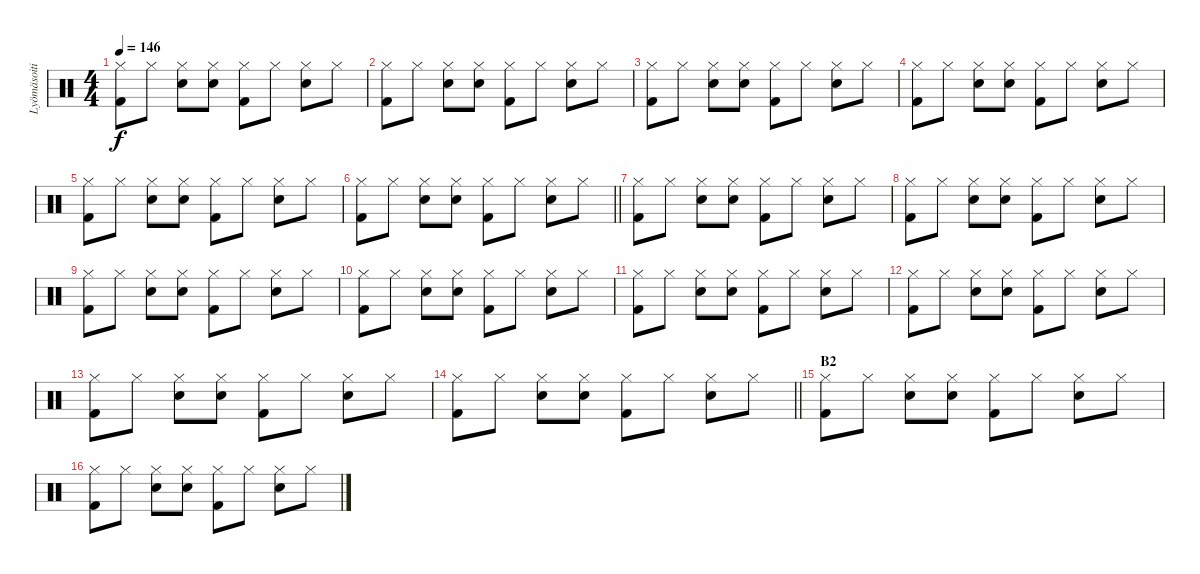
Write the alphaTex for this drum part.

\track ("Lyömäsoitin" "Lyömäsoiti") {instrument percussion}
\staff {score}
\articulation defaults
\ts (4 4)
\tempo 146
\clef neutral
\ks c
("Hi-Hat (closed)" "Kick (hit) 2").8{dy f} "Hi-Hat (closed)".8 ("Hi-Hat (closed)" "Electric Snare (hit)").8 ("Hi-Hat (closed)" "Electric Snare (hit)").8 ("Hi-Hat (closed)" "Kick (hit) 2").8 "Hi-Hat (closed)".8 ("Hi-Hat (closed)" "Electric Snare (hit)").8 "Hi-Hat (closed)".8 |
("Hi-Hat (closed)" "Kick (hit) 2").8 "Hi-Hat (closed)".8 ("Hi-Hat (closed)" "Electric Snare (hit)").8 ("Hi-Hat (closed)" "Electric Snare (hit)").8 ("Hi-Hat (closed)" "Kick (hit) 2").8 "Hi-Hat (closed)".8 ("Hi-Hat (closed)" "Electric Snare (hit)").8 "Hi-Hat (closed)".8 |
("Hi-Hat (closed)" "Kick (hit) 2").8 "Hi-Hat (closed)".8 ("Hi-Hat (closed)" "Electric Snare (hit)").8 ("Hi-Hat (closed)" "Electric Snare (hit)").8 ("Hi-Hat (closed)" "Kick (hit) 2").8 "Hi-Hat (closed)".8 ("Hi-Hat (closed)" "Electric Snare (hit)").8 "Hi-Hat (closed)".8 |
("Hi-Hat (closed)" "Kick (hit) 2").8 "Hi-Hat (closed)".8 ("Hi-Hat (closed)" "Electric Snare (hit)").8 ("Hi-Hat (closed)" "Electric Snare (hit)").8 ("Hi-Hat (closed)" "Kick (hit) 2").8 "Hi-Hat (closed)".8 ("Hi-Hat (closed)" "Electric Snare (hit)").8 "Hi-Hat (closed)".8 |
("Hi-Hat (closed)" "Kick (hit) 2").8 "Hi-Hat (closed)".8 ("Hi-Hat (closed)" "Electric Snare (hit)").8 ("Hi-Hat (closed)" "Electric Snare (hit)").8 ("Hi-Hat (closed)" "Kick (hit) 2").8 "Hi-Hat (closed)".8 ("Hi-Hat (closed)" "Electric Snare (hit)").8 "Hi-Hat (closed)".8 |
\barLineRight lightlight
("Hi-Hat (closed)" "Kick (hit) 2").8 "Hi-Hat (closed)".8 ("Hi-Hat (closed)" "Electric Snare (hit)").8 ("Hi-Hat (closed)" "Electric Snare (hit)").8 ("Hi-Hat (closed)" "Kick (hit) 2").8 "Hi-Hat (closed)".8 ("Hi-Hat (closed)" "Electric Snare (hit)").8 "Hi-Hat (closed)".8 |
("Hi-Hat (closed)" "Kick (hit) 2").8 "Hi-Hat (closed)".8 ("Hi-Hat (closed)" "Electric Snare (hit)").8 ("Hi-Hat (closed)" "Electric Snare (hit)").8 ("Hi-Hat (closed)" "Kick (hit) 2").8 "Hi-Hat (closed)".8 ("Hi-Hat (closed)" "Electric Snare (hit)").8 "Hi-Hat (closed)".8 |
("Hi-Hat (closed)" "Kick (hit) 2").8 "Hi-Hat (closed)".8 ("Hi-Hat (closed)" "Electric Snare (hit)").8 ("Hi-Hat (closed)" "Electric Snare (hit)").8 ("Hi-Hat (closed)" "Kick (hit) 2").8 "Hi-Hat (closed)".8 ("Hi-Hat (closed)" "Electric Snare (hit)").8 "Hi-Hat (closed)".8 |
("Hi-Hat (closed)" "Kick (hit) 2").8 "Hi-Hat (closed)".8 ("Hi-Hat (closed)" "Electric Snare (hit)").8 ("Hi-Hat (closed)" "Electric Snare (hit)").8 ("Hi-Hat (closed)" "Kick (hit) 2").8 "Hi-Hat (closed)".8 ("Hi-Hat (closed)" "Electric Snare (hit)").8 "Hi-Hat (closed)".8 |
("Hi-Hat (closed)" "Kick (hit) 2").8 "Hi-Hat (closed)".8 ("Hi-Hat (closed)" "Electric Snare (hit)").8 ("Hi-Hat (closed)" "Electric Snare (hit)").8 ("Hi-Hat (closed)" "Kick (hit) 2").8 "Hi-Hat (closed)".8 ("Hi-Hat (closed)" "Electric Snare (hit)").8 "Hi-Hat (closed)".8 |
("Hi-Hat (closed)" "Kick (hit) 2").8 "Hi-Hat (closed)".8 ("Hi-Hat (closed)" "Electric Snare (hit)").8 ("Hi-Hat (closed)" "Electric Snare (hit)").8 ("Hi-Hat (closed)" "Kick (hit) 2").8 "Hi-Hat (closed)".8 ("Hi-Hat (closed)" "Electric Snare (hit)").8 "Hi-Hat (closed)".8 |
("Hi-Hat (closed)" "Kick (hit) 2").8 "Hi-Hat (closed)".8 ("Hi-Hat (closed)" "Electric Snare (hit)").8 ("Hi-Hat (closed)" "Electric Snare (hit)").8 ("Hi-Hat (closed)" "Kick (hit) 2").8 "Hi-Hat (closed)".8 ("Hi-Hat (closed)" "Electric Snare (hit)").8 "Hi-Hat (closed)".8 |
("Hi-Hat (closed)" "Kick (hit) 2").8 "Hi-Hat (closed)".8 ("Hi-Hat (closed)" "Electric Snare (hit)").8 ("Hi-Hat (closed)" "Electric Snare (hit)").8 ("Hi-Hat (closed)" "Kick (hit) 2").8 "Hi-Hat (closed)".8 ("Hi-Hat (closed)" "Electric Snare (hit)").8 "Hi-Hat (closed)".8 |
\barLineRight lightlight
("Hi-Hat (closed)" "Kick (hit) 2").8 "Hi-Hat (closed)".8 ("Hi-Hat (closed)" "Electric Snare (hit)").8 ("Hi-Hat (closed)" "Electric Snare (hit)").8 ("Hi-Hat (closed)" "Kick (hit) 2").8 "Hi-Hat (closed)".8 ("Hi-Hat (closed)" "Electric Snare (hit)").8 "Hi-Hat (closed)".8 |
\section ("" "B2")
("Hi-Hat (closed)" "Kick (hit) 2").8 "Hi-Hat (closed)".8 ("Hi-Hat (closed)" "Electric Snare (hit)").8 ("Hi-Hat (closed)" "Electric Snare (hit)").8 ("Hi-Hat (closed)" "Kick (hit) 2").8 "Hi-Hat (closed)".8 ("Hi-Hat (closed)" "Electric Snare (hit)").8 "Hi-Hat (closed)".8 |
("Hi-Hat (closed)" "Kick (hit) 2").8 "Hi-Hat (closed)".8 ("Hi-Hat (closed)" "Electric Snare (hit)").8 ("Hi-Hat (closed)" "Electric Snare (hit)").8 ("Hi-Hat (closed)" "Kick (hit) 2").8 "Hi-Hat (closed)".8 ("Hi-Hat (closed)" "Electric Snare (hit)").8 "Hi-Hat (closed)".8
